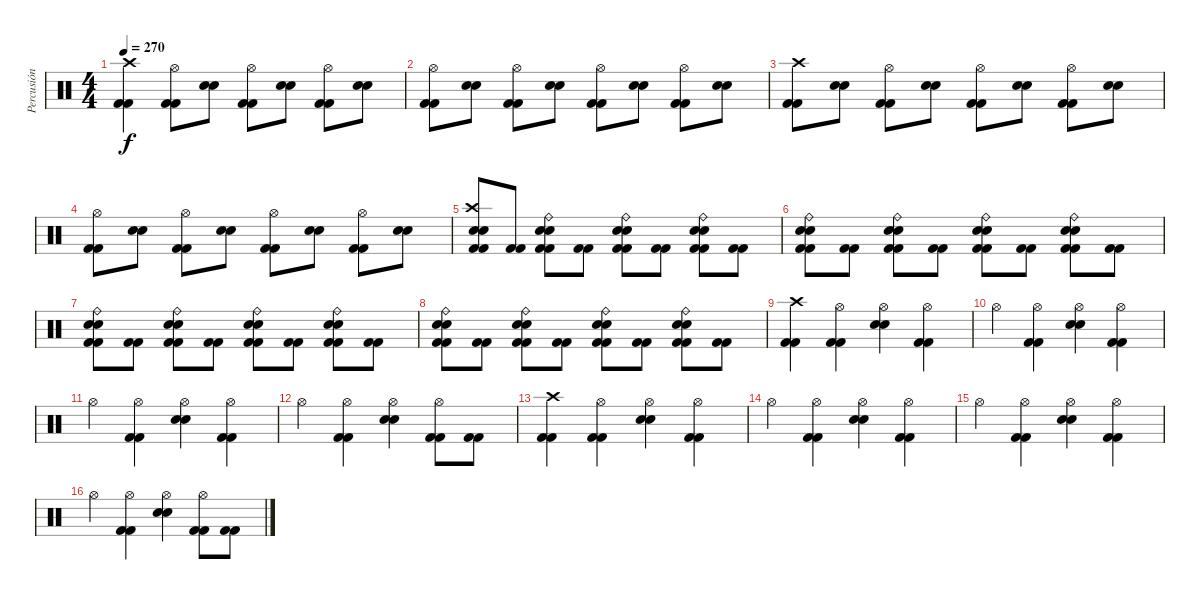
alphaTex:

\track ("Percusión" "Percusión") {instrument percussion}
\staff {score}
\articulation defaults
\ts (4 4)
\tempo 270
\clef neutral
\ks c
("Kick (hit) 2" "Kick (hit) 2" "Crash high (hit)").4{dy f} ("Kick (hit) 2" "Kick (hit) 2" "Hi-Hat (open)").8 ("Electric Snare (hit)" "Electric Snare (hit)").8 ("Kick (hit) 2" "Kick (hit) 2" "Hi-Hat (open)").8 ("Electric Snare (hit)" "Electric Snare (hit)").8 ("Kick (hit) 2" "Kick (hit) 2" "Hi-Hat (open)").8 ("Electric Snare (hit)" "Electric Snare (hit)").8 |
("Kick (hit) 2" "Kick (hit) 2" "Hi-Hat (open)").8 ("Electric Snare (hit)" "Electric Snare (hit)").8 ("Kick (hit) 2" "Kick (hit) 2" "Hi-Hat (open)").8 ("Electric Snare (hit)" "Electric Snare (hit)").8 ("Kick (hit) 2" "Kick (hit) 2" "Hi-Hat (open)").8 ("Electric Snare (hit)" "Electric Snare (hit)").8 ("Kick (hit) 2" "Kick (hit) 2" "Hi-Hat (open)").8 ("Electric Snare (hit)" "Electric Snare (hit)").8 |
("Kick (hit) 2" "Kick (hit) 2" "Crash high (hit)").8 ("Electric Snare (hit)" "Electric Snare (hit)").8 ("Kick (hit) 2" "Kick (hit) 2" "Hi-Hat (open)").8 ("Electric Snare (hit)" "Electric Snare (hit)").8 ("Kick (hit) 2" "Kick (hit) 2" "Hi-Hat (open)").8 ("Electric Snare (hit)" "Electric Snare (hit)").8 ("Kick (hit) 2" "Kick (hit) 2" "Hi-Hat (open)").8 ("Electric Snare (hit)" "Electric Snare (hit)").8 |
("Kick (hit) 2" "Kick (hit) 2" "Hi-Hat (open)").8 ("Electric Snare (hit)" "Electric Snare (hit)").8 ("Kick (hit) 2" "Kick (hit) 2" "Hi-Hat (open)").8 ("Electric Snare (hit)" "Electric Snare (hit)").8 ("Kick (hit) 2" "Kick (hit) 2" "Hi-Hat (open)").8 ("Electric Snare (hit)" "Electric Snare (hit)").8 ("Kick (hit) 2" "Kick (hit) 2" "Hi-Hat (open)").8 ("Electric Snare (hit)" "Electric Snare (hit)").8 |
("Kick (hit) 2" "Kick (hit) 2" "Electric Snare (hit)" "Electric Snare (hit)" "Crash high (hit)").8 ("Kick (hit) 2" "Kick (hit) 2").8 ("Kick (hit) 2" "Kick (hit) 2" "Electric Snare (hit)" "Electric Snare (hit)" "Ride (bell)").8 ("Kick (hit) 2" "Kick (hit) 2").8 ("Kick (hit) 2" "Kick (hit) 2" "Electric Snare (hit)" "Electric Snare (hit)" "Ride (bell)").8 ("Kick (hit) 2" "Kick (hit) 2").8 ("Kick (hit) 2" "Kick (hit) 2" "Electric Snare (hit)" "Electric Snare (hit)" "Ride (bell)").8 ("Kick (hit) 2" "Kick (hit) 2").8 |
("Kick (hit) 2" "Kick (hit) 2" "Electric Snare (hit)" "Electric Snare (hit)" "Ride (bell)").8 ("Kick (hit) 2" "Kick (hit) 2").8 ("Kick (hit) 2" "Kick (hit) 2" "Electric Snare (hit)" "Electric Snare (hit)" "Ride (bell)").8 ("Kick (hit) 2" "Kick (hit) 2").8 ("Kick (hit) 2" "Kick (hit) 2" "Electric Snare (hit)" "Electric Snare (hit)" "Ride (bell)").8 ("Kick (hit) 2" "Kick (hit) 2").8 ("Kick (hit) 2" "Kick (hit) 2" "Electric Snare (hit)" "Electric Snare (hit)" "Ride (bell)").8 ("Kick (hit) 2" "Kick (hit) 2").8 |
("Kick (hit) 2" "Kick (hit) 2" "Electric Snare (hit)" "Electric Snare (hit)" "Ride (bell)").8 ("Kick (hit) 2" "Kick (hit) 2").8 ("Kick (hit) 2" "Kick (hit) 2" "Electric Snare (hit)" "Electric Snare (hit)" "Ride (bell)").8 ("Kick (hit) 2" "Kick (hit) 2").8 ("Kick (hit) 2" "Kick (hit) 2" "Electric Snare (hit)" "Electric Snare (hit)" "Ride (bell)").8 ("Kick (hit) 2" "Kick (hit) 2").8 ("Kick (hit) 2" "Kick (hit) 2" "Electric Snare (hit)" "Electric Snare (hit)" "Ride (bell)").8 ("Kick (hit) 2" "Kick (hit) 2").8 |
("Kick (hit) 2" "Kick (hit) 2" "Electric Snare (hit)" "Electric Snare (hit)" "Ride (bell)").8 ("Kick (hit) 2" "Kick (hit) 2").8 ("Kick (hit) 2" "Kick (hit) 2" "Electric Snare (hit)" "Electric Snare (hit)" "Ride (bell)").8 ("Kick (hit) 2" "Kick (hit) 2").8 ("Kick (hit) 2" "Kick (hit) 2" "Electric Snare (hit)" "Electric Snare (hit)" "Ride (bell)").8 ("Kick (hit) 2" "Kick (hit) 2").8 ("Kick (hit) 2" "Kick (hit) 2" "Electric Snare (hit)" "Electric Snare (hit)" "Ride (bell)").8 ("Kick (hit) 2" "Kick (hit) 2").8 |
("Kick (hit) 2" "Kick (hit) 2" "Crash high (hit)").4 ("Kick (hit) 2" "Kick (hit) 2" "Hi-Hat (open)").4 ("Electric Snare (hit)" "Electric Snare (hit)" "Hi-Hat (open)").4 ("Kick (hit) 2" "Kick (hit) 2" "Hi-Hat (open)").4 |
"Hi-Hat (open)".4 ("Kick (hit) 2" "Kick (hit) 2" "Hi-Hat (open)").4 ("Electric Snare (hit)" "Electric Snare (hit)" "Hi-Hat (open)").4 ("Kick (hit) 2" "Kick (hit) 2" "Hi-Hat (open)").4 |
"Hi-Hat (open)".4 ("Kick (hit) 2" "Kick (hit) 2" "Hi-Hat (open)").4 ("Electric Snare (hit)" "Electric Snare (hit)" "Hi-Hat (open)").4 ("Kick (hit) 2" "Kick (hit) 2" "Hi-Hat (open)").4 |
"Hi-Hat (open)".4 ("Kick (hit) 2" "Kick (hit) 2" "Hi-Hat (open)").4 ("Electric Snare (hit)" "Electric Snare (hit)" "Hi-Hat (open)").4 ("Kick (hit) 2" "Kick (hit) 2" "Hi-Hat (open)").8 ("Kick (hit) 2" "Kick (hit) 2").8 |
("Kick (hit) 2" "Kick (hit) 2" "Crash high (hit)").4 ("Kick (hit) 2" "Kick (hit) 2" "Hi-Hat (open)").4 ("Electric Snare (hit)" "Electric Snare (hit)" "Hi-Hat (open)").4 ("Kick (hit) 2" "Kick (hit) 2" "Hi-Hat (open)").4 |
"Hi-Hat (open)".4 ("Kick (hit) 2" "Kick (hit) 2" "Hi-Hat (open)").4 ("Electric Snare (hit)" "Electric Snare (hit)" "Hi-Hat (open)").4 ("Kick (hit) 2" "Kick (hit) 2" "Hi-Hat (open)").4 |
"Hi-Hat (open)".4 ("Kick (hit) 2" "Kick (hit) 2" "Hi-Hat (open)").4 ("Electric Snare (hit)" "Electric Snare (hit)" "Hi-Hat (open)").4 ("Kick (hit) 2" "Kick (hit) 2" "Hi-Hat (open)").4 |
"Hi-Hat (open)".4 ("Kick (hit) 2" "Kick (hit) 2" "Hi-Hat (open)").4 ("Electric Snare (hit)" "Electric Snare (hit)" "Hi-Hat (open)").4 ("Kick (hit) 2" "Kick (hit) 2" "Hi-Hat (open)").8 ("Kick (hit) 2" "Kick (hit) 2").8
